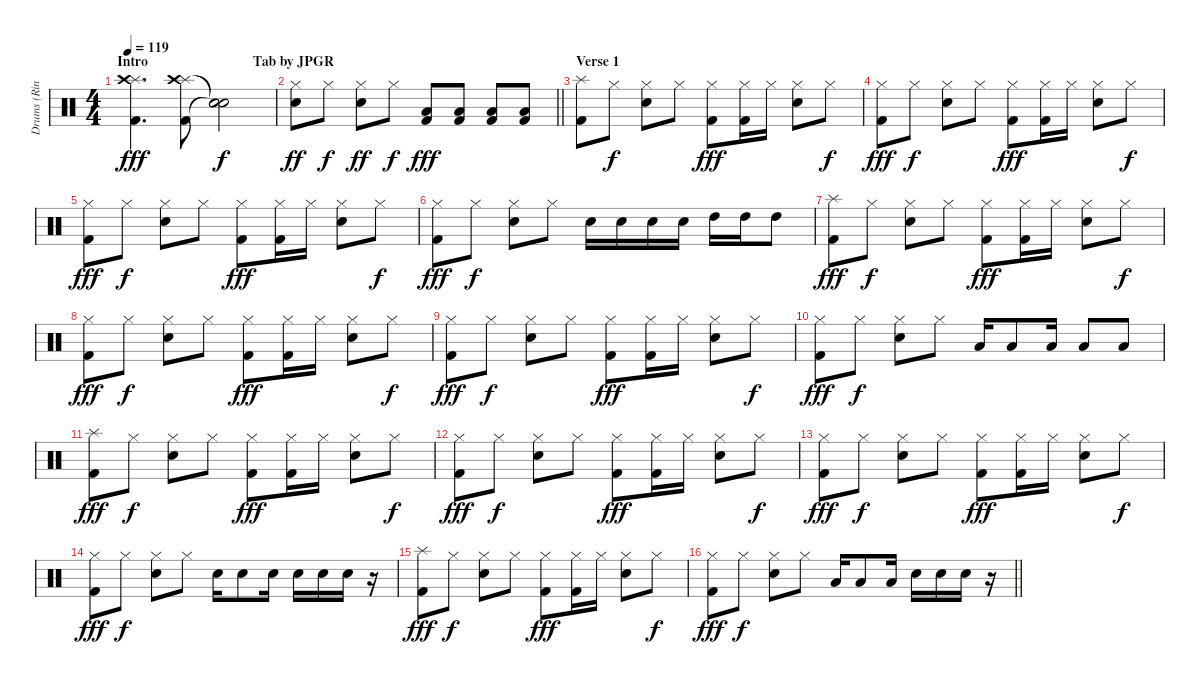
\track ("Drums (Ringo Starr)" "Drums (Rin") {instrument percussion}
\staff {score}
\articulation defaults
\ts (4 4)
\section ("" "Intro                              Tab by JPGR")
\tempo 119
\clef neutral
\ks c
("Splash (hit)" "Crash high (hit)" "Kick (hit) 2").4{d dy fff} ("Splash (hit)" "Crash high (hit)" "Kick (hit) 2").8 ("Snare (hit)"{t} "Snare (hit)"{t} "Snare (hit)"{t}).2{dy f} |
\barLineRight lightlight
("Hi-Hat (closed)" "Snare (hit) 2").8{dy ff} "Hi-Hat (closed)".8{dy f} ("Hi-Hat (closed)" "Snare (hit) 2").8{dy ff} "Hi-Hat (closed)".8{dy f} ("Low Floor Tom (hit)" "Kick (hit) 2").8{dy fff} ("Low Floor Tom (hit)" "Kick (hit) 2").8 ("Low Floor Tom (hit)" "Kick (hit) 2").8 ("Low Floor Tom (hit)" "Kick (hit) 2").8 |
\section ("" "Verse 1")
("Splash (hit)" "Kick (hit) 2").8 "Hi-Hat (closed)".8{dy f} ("Hi-Hat (closed)" "Snare (hit) 2").8 "Hi-Hat (closed)".8 ("Hi-Hat (closed)" "Kick (hit) 2").8{dy fff} ("Hi-Hat (closed)" "Kick (hit) 2").16 "Hi-Hat (closed)".16 ("Hi-Hat (closed)" "Snare (hit) 2").8 "Hi-Hat (closed)".8{dy f} |
("Hi-Hat (closed)" "Kick (hit) 2").8{dy fff} "Hi-Hat (closed)".8{dy f} ("Hi-Hat (closed)" "Snare (hit) 2").8 "Hi-Hat (closed)".8 ("Hi-Hat (closed)" "Kick (hit) 2").8{dy fff} ("Hi-Hat (closed)" "Kick (hit) 2").16 "Hi-Hat (closed)".16 ("Hi-Hat (closed)" "Snare (hit) 2").8 "Hi-Hat (closed)".8{dy f} |
("Hi-Hat (closed)" "Kick (hit) 2").8{dy fff} "Hi-Hat (closed)".8{dy f} ("Hi-Hat (closed)" "Snare (hit) 2").8 "Hi-Hat (closed)".8 ("Hi-Hat (closed)" "Kick (hit) 2").8{dy fff} ("Hi-Hat (closed)" "Kick (hit) 2").16 "Hi-Hat (closed)".16 ("Hi-Hat (closed)" "Snare (hit) 2").8 "Hi-Hat (closed)".8{dy f} |
("Hi-Hat (closed)" "Kick (hit) 2").8{dy fff} "Hi-Hat (closed)".8{dy f} ("Hi-Hat (closed)" "Snare (hit) 2").8 "Hi-Hat (closed)".8 "Snare (hit) 2".16 "Snare (hit) 2".16 "Snare (hit) 2".16 "Snare (hit) 2".16 "High Tom (hit)".16 "High Tom (hit)".16 "High Tom (hit)".8 |
("Splash (hit)" "Kick (hit) 2").8{dy fff} "Hi-Hat (closed)".8{dy f} ("Hi-Hat (closed)" "Snare (hit) 2").8 "Hi-Hat (closed)".8 ("Hi-Hat (closed)" "Kick (hit) 2").8{dy fff} ("Hi-Hat (closed)" "Kick (hit) 2").16 "Hi-Hat (closed)".16 ("Hi-Hat (closed)" "Snare (hit) 2").8 "Hi-Hat (closed)".8{dy f} |
("Hi-Hat (closed)" "Kick (hit) 2").8{dy fff} "Hi-Hat (closed)".8{dy f} ("Hi-Hat (closed)" "Snare (hit) 2").8 "Hi-Hat (closed)".8 ("Hi-Hat (closed)" "Kick (hit) 2").8{dy fff} ("Hi-Hat (closed)" "Kick (hit) 2").16 "Hi-Hat (closed)".16 ("Hi-Hat (closed)" "Snare (hit) 2").8 "Hi-Hat (closed)".8{dy f} |
("Hi-Hat (closed)" "Kick (hit) 2").8{dy fff} "Hi-Hat (closed)".8{dy f} ("Hi-Hat (closed)" "Snare (hit) 2").8 "Hi-Hat (closed)".8 ("Hi-Hat (closed)" "Kick (hit) 2").8{dy fff} ("Hi-Hat (closed)" "Kick (hit) 2").16 "Hi-Hat (closed)".16 ("Hi-Hat (closed)" "Snare (hit) 2").8 "Hi-Hat (closed)".8{dy f} |
("Hi-Hat (closed)" "Kick (hit) 2").8{dy fff} "Hi-Hat (closed)".8{dy f} ("Hi-Hat (closed)" "Snare (hit) 2").8 "Hi-Hat (closed)".8 "Low Floor Tom (hit)".16 "Low Floor Tom (hit)".8 "Low Floor Tom (hit)".16 "Low Floor Tom (hit)".8 "Low Floor Tom (hit)".8 |
("Splash (hit)" "Kick (hit) 2").8{dy fff} "Hi-Hat (closed)".8{dy f} ("Hi-Hat (closed)" "Snare (hit) 2").8 "Hi-Hat (closed)".8 ("Hi-Hat (closed)" "Kick (hit) 2").8{dy fff} ("Hi-Hat (closed)" "Kick (hit) 2").16 "Hi-Hat (closed)".16 ("Hi-Hat (closed)" "Snare (hit) 2").8 "Hi-Hat (closed)".8{dy f} |
("Hi-Hat (closed)" "Kick (hit) 2").8{dy fff} "Hi-Hat (closed)".8{dy f} ("Hi-Hat (closed)" "Snare (hit) 2").8 "Hi-Hat (closed)".8 ("Hi-Hat (closed)" "Kick (hit) 2").8{dy fff} ("Hi-Hat (closed)" "Kick (hit) 2").16 "Hi-Hat (closed)".16 ("Hi-Hat (closed)" "Snare (hit) 2").8 "Hi-Hat (closed)".8{dy f} |
("Hi-Hat (closed)" "Kick (hit) 2").8{dy fff} "Hi-Hat (closed)".8{dy f} ("Hi-Hat (closed)" "Snare (hit) 2").8 "Hi-Hat (closed)".8 ("Hi-Hat (closed)" "Kick (hit) 2").8{dy fff} ("Hi-Hat (closed)" "Kick (hit) 2").16 "Hi-Hat (closed)".16 ("Hi-Hat (closed)" "Snare (hit) 2").8 "Hi-Hat (closed)".8{dy f} |
("Hi-Hat (closed)" "Kick (hit) 2").8{dy fff} "Hi-Hat (closed)".8{dy f} ("Hi-Hat (closed)" "Snare (hit) 2").8 "Hi-Hat (closed)".8 "Snare (hit) 2".16 "Snare (hit) 2".8 "Snare (hit) 2".16 "Snare (hit) 2".16 "Snare (hit) 2".16 "Snare (hit) 2".16 r.16 |
("Splash (hit)" "Kick (hit) 2").8{dy fff} "Hi-Hat (closed)".8{dy f} ("Hi-Hat (closed)" "Snare (hit) 2").8 "Hi-Hat (closed)".8 ("Hi-Hat (closed)" "Kick (hit) 2").8{dy fff} ("Hi-Hat (closed)" "Kick (hit) 2").16 "Hi-Hat (closed)".16 ("Hi-Hat (closed)" "Snare (hit) 2").8 "Hi-Hat (closed)".8{dy f} |
\barLineRight lightlight
("Hi-Hat (closed)" "Kick (hit) 2").8{dy fff} "Hi-Hat (closed)".8{dy f} ("Hi-Hat (closed)" "Snare (hit) 2").8 "Hi-Hat (closed)".8 "Low Floor Tom (hit)".16 "Low Floor Tom (hit)".8 "Low Floor Tom (hit)".16 "Snare (hit) 2".16 "Snare (hit) 2".16 "Snare (hit) 2".16 r.16
